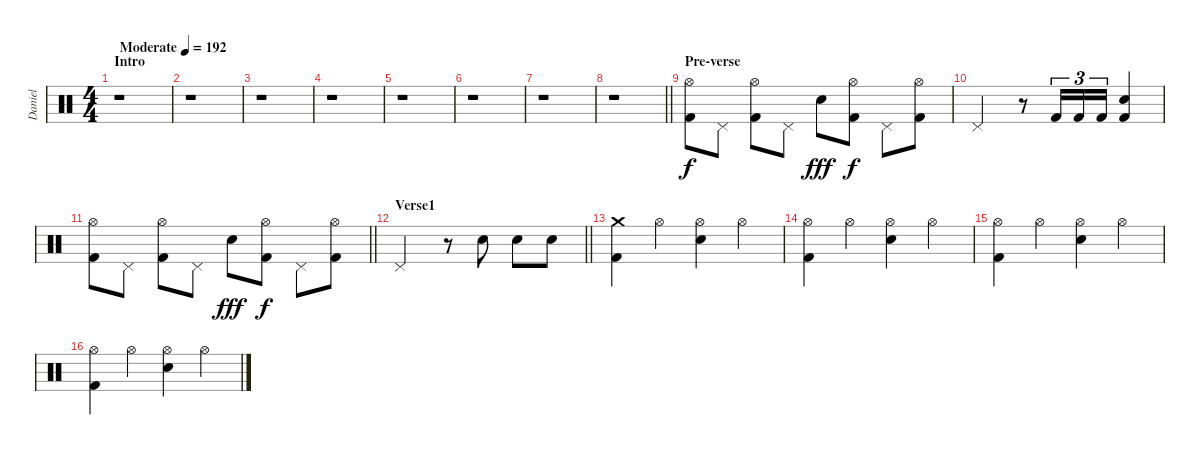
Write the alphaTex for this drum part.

\track ("Daniel" "Daniel") {instrument percussion}
\staff {score}
\articulation defaults
\ts (4 4)
\section ("" "Intro")
\tempo (192 "Moderate")
\clef neutral
\ks c
r.1{dy f} |
r.1 |
r.1 |
r.1 |
r.1 |
r.1 |
r.1 |
\barLineRight lightlight
r.1 |
\section ("" "Pre-verse")
("Kick (hit) 2" "Hi-Hat (open)").8 "Pedal Hi-Hat (hit)".8 ("Kick (hit) 2" "Hi-Hat (open)").8 "Pedal Hi-Hat (hit)".8 "Electric Snare (hit)".8{dy fff} ("Kick (hit) 2" "Hi-Hat (open)").8{dy f} "Pedal Hi-Hat (hit)".8 ("Kick (hit) 2" "Hi-Hat (open)").8 |
"Pedal Hi-Hat (hit)".2 r.8 "Kick (hit) 2".16{tu (3 2)} "Kick (hit) 2".16{tu (3 2)} "Kick (hit) 2".16{tu (3 2)} ("Kick (hit) 2" "Electric Snare (hit)").4 |
\barLineRight lightlight
("Kick (hit) 2" "Hi-Hat (open)").8 "Pedal Hi-Hat (hit)".8 ("Kick (hit) 2" "Hi-Hat (open)").8 "Pedal Hi-Hat (hit)".8 "Electric Snare (hit)".8{dy fff} ("Kick (hit) 2" "Hi-Hat (open)").8{dy f} "Pedal Hi-Hat (hit)".8 ("Kick (hit) 2" "Hi-Hat (open)").8 |
\section ("" "Verse1")
\barLineRight lightlight "Pedal Hi-Hat (hit)".2
r.8 "Electric Snare (hit)".8 "Electric Snare (hit)".8 "Electric Snare (hit)".8 |
("Kick (hit) 2" "Crash medium (hit)").4 "Hi-Hat (open)".4 ("Electric Snare (hit)" "Hi-Hat (open)").4 "Hi-Hat (open)".4 |
("Kick (hit) 2" "Hi-Hat (open)").4 "Hi-Hat (open)".4 ("Electric Snare (hit)" "Hi-Hat (open)").4 "Hi-Hat (open)".4 |
("Kick (hit) 2" "Hi-Hat (open)").4 "Hi-Hat (open)".4 ("Electric Snare (hit)" "Hi-Hat (open)").4 "Hi-Hat (open)".4 |
("Kick (hit) 2" "Hi-Hat (open)").4 "Hi-Hat (open)".4 ("Electric Snare (hit)" "Hi-Hat (open)").4 "Hi-Hat (open)".4
